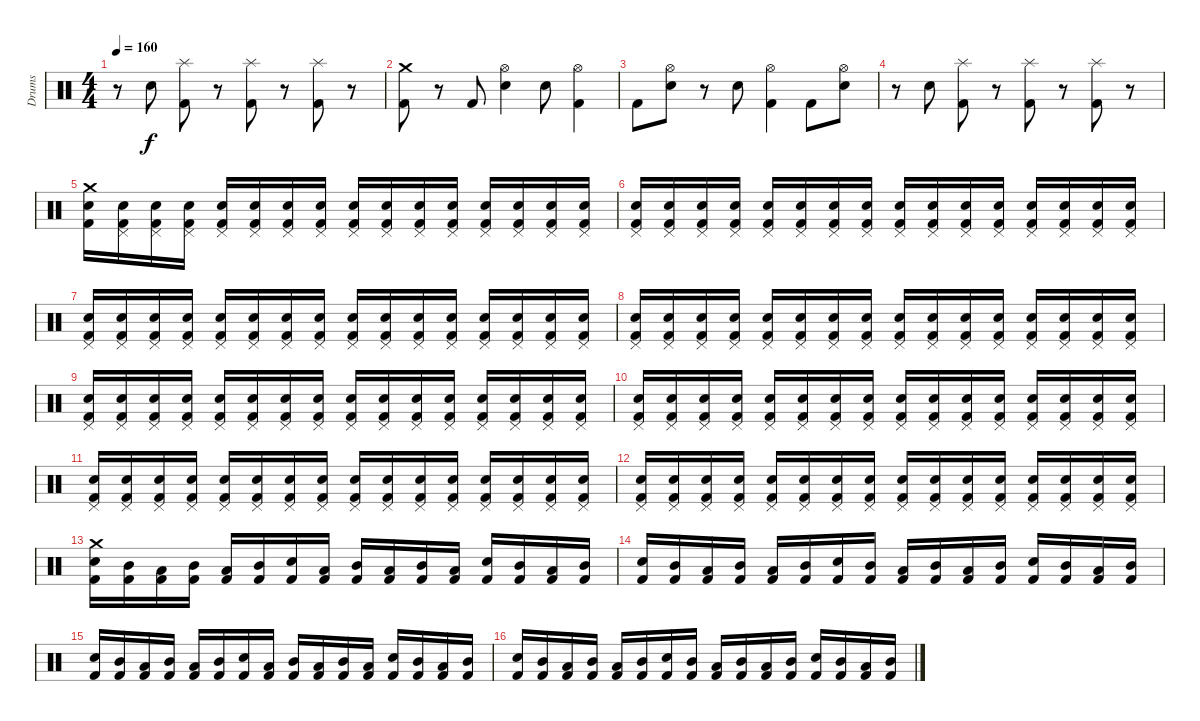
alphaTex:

\track ("Drums" "Drums") {instrument percussion}
\staff {score}
\articulation defaults
\ts (4 4)
\tempo 160
\clef neutral
\ks c
r.8{dy f} "Electric Snare (hit)".8 ("Splash (hit)" "Kick (hit) 2").8 r.8 ("Splash (hit)" "Kick (hit) 2").8 r.8 ("Splash (hit)" "Kick (hit) 2").8 r.8 |
("Crash medium (hit)" "Kick (hit) 2").8 r.8 "Kick (hit) 2".8 ("Hi-Hat (open)" "Electric Snare (hit)").4 "Electric Snare (hit)".8 ("Hi-Hat (open)" "Kick (hit) 2").4 |
"Kick (hit) 2".8 ("Hi-Hat (open)" "Electric Snare (hit)").8 r.8 "Electric Snare (hit)".8 ("Hi-Hat (open)" "Kick (hit) 2").4 "Kick (hit) 2".8 ("Hi-Hat (open)" "Electric Snare (hit)").8 |
r.8 "Electric Snare (hit)".8 ("Splash (hit)" "Kick (hit) 2").8 r.8 ("Splash (hit)" "Kick (hit) 2").8 r.8 ("Splash (hit)" "Kick (hit) 2").8 r.8 |
("Electric Snare (hit)" "Crash medium (hit)" "Kick (hit) 2").16 ("Pedal Hi-Hat (hit)" "Kick (hit) 2" "Electric Snare (hit)").16 ("Pedal Hi-Hat (hit)" "Kick (hit) 2" "Electric Snare (hit)").16 ("Pedal Hi-Hat (hit)" "Kick (hit) 2" "Electric Snare (hit)").16 ("Pedal Hi-Hat (hit)" "Kick (hit) 2" "Electric Snare (hit)").16 ("Pedal Hi-Hat (hit)" "Kick (hit) 2" "Electric Snare (hit)").16 ("Pedal Hi-Hat (hit)" "Kick (hit) 2" "Electric Snare (hit)").16 ("Pedal Hi-Hat (hit)" "Kick (hit) 2" "Electric Snare (hit)").16 ("Pedal Hi-Hat (hit)" "Kick (hit) 2" "Electric Snare (hit)").16 ("Pedal Hi-Hat (hit)" "Kick (hit) 2" "Electric Snare (hit)").16 ("Pedal Hi-Hat (hit)" "Kick (hit) 2" "Electric Snare (hit)").16 ("Pedal Hi-Hat (hit)" "Kick (hit) 2" "Electric Snare (hit)").16 ("Pedal Hi-Hat (hit)" "Kick (hit) 2" "Electric Snare (hit)").16 ("Pedal Hi-Hat (hit)" "Kick (hit) 2" "Electric Snare (hit)").16 ("Pedal Hi-Hat (hit)" "Kick (hit) 2" "Electric Snare (hit)").16 ("Pedal Hi-Hat (hit)" "Kick (hit) 2" "Electric Snare (hit)").16 |
("Electric Snare (hit)" "Kick (hit) 2" "Pedal Hi-Hat (hit)").16 ("Pedal Hi-Hat (hit)" "Kick (hit) 2" "Electric Snare (hit)").16 ("Pedal Hi-Hat (hit)" "Kick (hit) 2" "Electric Snare (hit)").16 ("Pedal Hi-Hat (hit)" "Kick (hit) 2" "Electric Snare (hit)").16 ("Pedal Hi-Hat (hit)" "Kick (hit) 2" "Electric Snare (hit)").16 ("Pedal Hi-Hat (hit)" "Kick (hit) 2" "Electric Snare (hit)").16 ("Pedal Hi-Hat (hit)" "Kick (hit) 2" "Electric Snare (hit)").16 ("Pedal Hi-Hat (hit)" "Kick (hit) 2" "Electric Snare (hit)").16 ("Pedal Hi-Hat (hit)" "Kick (hit) 2" "Electric Snare (hit)").16 ("Pedal Hi-Hat (hit)" "Kick (hit) 2" "Electric Snare (hit)").16 ("Pedal Hi-Hat (hit)" "Kick (hit) 2" "Electric Snare (hit)").16 ("Pedal Hi-Hat (hit)" "Kick (hit) 2" "Electric Snare (hit)").16 ("Pedal Hi-Hat (hit)" "Kick (hit) 2" "Electric Snare (hit)").16 ("Pedal Hi-Hat (hit)" "Kick (hit) 2" "Electric Snare (hit)").16 ("Pedal Hi-Hat (hit)" "Kick (hit) 2" "Electric Snare (hit)").16 ("Pedal Hi-Hat (hit)" "Kick (hit) 2" "Electric Snare (hit)").16 |
("Pedal Hi-Hat (hit)" "Electric Snare (hit)" "Kick (hit) 2").16 ("Pedal Hi-Hat (hit)" "Kick (hit) 2" "Electric Snare (hit)").16 ("Pedal Hi-Hat (hit)" "Kick (hit) 2" "Electric Snare (hit)").16 ("Pedal Hi-Hat (hit)" "Kick (hit) 2" "Electric Snare (hit)").16 ("Pedal Hi-Hat (hit)" "Kick (hit) 2" "Electric Snare (hit)").16 ("Pedal Hi-Hat (hit)" "Kick (hit) 2" "Electric Snare (hit)").16 ("Pedal Hi-Hat (hit)" "Kick (hit) 2" "Electric Snare (hit)").16 ("Pedal Hi-Hat (hit)" "Kick (hit) 2" "Electric Snare (hit)").16 ("Pedal Hi-Hat (hit)" "Kick (hit) 2" "Electric Snare (hit)").16 ("Pedal Hi-Hat (hit)" "Kick (hit) 2" "Electric Snare (hit)").16 ("Pedal Hi-Hat (hit)" "Kick (hit) 2" "Electric Snare (hit)").16 ("Pedal Hi-Hat (hit)" "Kick (hit) 2" "Electric Snare (hit)").16 ("Pedal Hi-Hat (hit)" "Kick (hit) 2" "Electric Snare (hit)").16 ("Pedal Hi-Hat (hit)" "Kick (hit) 2" "Electric Snare (hit)").16 ("Pedal Hi-Hat (hit)" "Kick (hit) 2" "Electric Snare (hit)").16 ("Pedal Hi-Hat (hit)" "Kick (hit) 2" "Electric Snare (hit)").16 |
("Electric Snare (hit)" "Kick (hit) 2" "Pedal Hi-Hat (hit)").16 ("Pedal Hi-Hat (hit)" "Kick (hit) 2" "Electric Snare (hit)").16 ("Pedal Hi-Hat (hit)" "Kick (hit) 2" "Electric Snare (hit)").16 ("Pedal Hi-Hat (hit)" "Kick (hit) 2" "Electric Snare (hit)").16 ("Pedal Hi-Hat (hit)" "Kick (hit) 2" "Electric Snare (hit)").16 ("Pedal Hi-Hat (hit)" "Kick (hit) 2" "Electric Snare (hit)").16 ("Pedal Hi-Hat (hit)" "Kick (hit) 2" "Electric Snare (hit)").16 ("Pedal Hi-Hat (hit)" "Kick (hit) 2" "Electric Snare (hit)").16 ("Pedal Hi-Hat (hit)" "Kick (hit) 2" "Electric Snare (hit)").16 ("Pedal Hi-Hat (hit)" "Kick (hit) 2" "Electric Snare (hit)").16 ("Pedal Hi-Hat (hit)" "Kick (hit) 2" "Electric Snare (hit)").16 ("Pedal Hi-Hat (hit)" "Kick (hit) 2" "Electric Snare (hit)").16 ("Pedal Hi-Hat (hit)" "Kick (hit) 2" "Electric Snare (hit)").16 ("Pedal Hi-Hat (hit)" "Kick (hit) 2" "Electric Snare (hit)").16 ("Pedal Hi-Hat (hit)" "Kick (hit) 2" "Electric Snare (hit)").16 ("Pedal Hi-Hat (hit)" "Kick (hit) 2" "Electric Snare (hit)").16 |
("Pedal Hi-Hat (hit)" "Electric Snare (hit)" "Kick (hit) 2").16 ("Pedal Hi-Hat (hit)" "Kick (hit) 2" "Electric Snare (hit)").16 ("Pedal Hi-Hat (hit)" "Kick (hit) 2" "Electric Snare (hit)").16 ("Pedal Hi-Hat (hit)" "Kick (hit) 2" "Electric Snare (hit)").16 ("Pedal Hi-Hat (hit)" "Kick (hit) 2" "Electric Snare (hit)").16 ("Pedal Hi-Hat (hit)" "Kick (hit) 2" "Electric Snare (hit)").16 ("Pedal Hi-Hat (hit)" "Kick (hit) 2" "Electric Snare (hit)").16 ("Pedal Hi-Hat (hit)" "Kick (hit) 2" "Electric Snare (hit)").16 ("Pedal Hi-Hat (hit)" "Kick (hit) 2" "Electric Snare (hit)").16 ("Pedal Hi-Hat (hit)" "Kick (hit) 2" "Electric Snare (hit)").16 ("Pedal Hi-Hat (hit)" "Kick (hit) 2" "Electric Snare (hit)").16 ("Pedal Hi-Hat (hit)" "Kick (hit) 2" "Electric Snare (hit)").16 ("Pedal Hi-Hat (hit)" "Kick (hit) 2" "Electric Snare (hit)").16 ("Pedal Hi-Hat (hit)" "Kick (hit) 2" "Electric Snare (hit)").16 ("Pedal Hi-Hat (hit)" "Kick (hit) 2" "Electric Snare (hit)").16 ("Pedal Hi-Hat (hit)" "Kick (hit) 2" "Electric Snare (hit)").16 |
("Electric Snare (hit)" "Kick (hit) 2" "Pedal Hi-Hat (hit)").16 ("Pedal Hi-Hat (hit)" "Kick (hit) 2" "Electric Snare (hit)").16 ("Pedal Hi-Hat (hit)" "Kick (hit) 2" "Electric Snare (hit)").16 ("Pedal Hi-Hat (hit)" "Kick (hit) 2" "Electric Snare (hit)").16 ("Pedal Hi-Hat (hit)" "Kick (hit) 2" "Electric Snare (hit)").16 ("Pedal Hi-Hat (hit)" "Kick (hit) 2" "Electric Snare (hit)").16 ("Pedal Hi-Hat (hit)" "Kick (hit) 2" "Electric Snare (hit)").16 ("Pedal Hi-Hat (hit)" "Kick (hit) 2" "Electric Snare (hit)").16 ("Pedal Hi-Hat (hit)" "Kick (hit) 2" "Electric Snare (hit)").16 ("Pedal Hi-Hat (hit)" "Kick (hit) 2" "Electric Snare (hit)").16 ("Pedal Hi-Hat (hit)" "Kick (hit) 2" "Electric Snare (hit)").16 ("Pedal Hi-Hat (hit)" "Kick (hit) 2" "Electric Snare (hit)").16 ("Pedal Hi-Hat (hit)" "Kick (hit) 2" "Electric Snare (hit)").16 ("Pedal Hi-Hat (hit)" "Kick (hit) 2" "Electric Snare (hit)").16 ("Pedal Hi-Hat (hit)" "Kick (hit) 2" "Electric Snare (hit)").16 ("Pedal Hi-Hat (hit)" "Kick (hit) 2" "Electric Snare (hit)").16 |
("Pedal Hi-Hat (hit)" "Electric Snare (hit)" "Kick (hit) 2").16 ("Pedal Hi-Hat (hit)" "Kick (hit) 2" "Electric Snare (hit)").16 ("Pedal Hi-Hat (hit)" "Kick (hit) 2" "Electric Snare (hit)").16 ("Pedal Hi-Hat (hit)" "Kick (hit) 2" "Electric Snare (hit)").16 ("Pedal Hi-Hat (hit)" "Kick (hit) 2" "Electric Snare (hit)").16 ("Pedal Hi-Hat (hit)" "Kick (hit) 2" "Electric Snare (hit)").16 ("Pedal Hi-Hat (hit)" "Kick (hit) 2" "Electric Snare (hit)").16 ("Pedal Hi-Hat (hit)" "Kick (hit) 2" "Electric Snare (hit)").16 ("Pedal Hi-Hat (hit)" "Kick (hit) 2" "Electric Snare (hit)").16 ("Pedal Hi-Hat (hit)" "Kick (hit) 2" "Electric Snare (hit)").16 ("Pedal Hi-Hat (hit)" "Kick (hit) 2" "Electric Snare (hit)").16 ("Pedal Hi-Hat (hit)" "Kick (hit) 2" "Electric Snare (hit)").16 ("Pedal Hi-Hat (hit)" "Kick (hit) 2" "Electric Snare (hit)").16 ("Pedal Hi-Hat (hit)" "Kick (hit) 2" "Electric Snare (hit)").16 ("Pedal Hi-Hat (hit)" "Kick (hit) 2" "Electric Snare (hit)").16 ("Pedal Hi-Hat (hit)" "Kick (hit) 2" "Electric Snare (hit)").16 |
("Electric Snare (hit)" "Kick (hit) 2" "Pedal Hi-Hat (hit)").16 ("Pedal Hi-Hat (hit)" "Kick (hit) 2" "Electric Snare (hit)").16 ("Pedal Hi-Hat (hit)" "Kick (hit) 2" "Electric Snare (hit)").16 ("Pedal Hi-Hat (hit)" "Kick (hit) 2" "Electric Snare (hit)").16 ("Pedal Hi-Hat (hit)" "Kick (hit) 2" "Electric Snare (hit)").16 ("Pedal Hi-Hat (hit)" "Kick (hit) 2" "Electric Snare (hit)").16 ("Pedal Hi-Hat (hit)" "Kick (hit) 2" "Electric Snare (hit)").16 ("Pedal Hi-Hat (hit)" "Kick (hit) 2" "Electric Snare (hit)").16 ("Pedal Hi-Hat (hit)" "Kick (hit) 2" "Electric Snare (hit)").16 ("Pedal Hi-Hat (hit)" "Kick (hit) 2" "Electric Snare (hit)").16 ("Pedal Hi-Hat (hit)" "Kick (hit) 2" "Electric Snare (hit)").16 ("Pedal Hi-Hat (hit)" "Kick (hit) 2" "Electric Snare (hit)").16 ("Pedal Hi-Hat (hit)" "Kick (hit) 2" "Electric Snare (hit)").16 ("Pedal Hi-Hat (hit)" "Kick (hit) 2" "Electric Snare (hit)").16 ("Pedal Hi-Hat (hit)" "Kick (hit) 2" "Electric Snare (hit)").16 ("Pedal Hi-Hat (hit)" "Kick (hit) 2" "Electric Snare (hit)").16 |
("Electric Snare (hit)" "Kick (hit) 2" "Crash medium (hit)").16 ("Mid Tom (hit)" "Kick (hit) 2").16 ("Low Tom (hit)" "Kick (hit) 2").16 ("Mid Tom (hit)" "Kick (hit) 2").16 ("Low Tom (hit)" "Kick (hit) 2").16 ("Mid Tom (hit)" "Kick (hit) 2").16 ("Electric Snare (hit)" "Kick (hit) 2").16 ("Low Tom (hit)" "Kick (hit) 2").16 ("Mid Tom (hit)" "Kick (hit) 2").16 ("Low Tom (hit)" "Kick (hit) 2").16 ("Mid Tom (hit)" "Kick (hit) 2").16 ("Low Tom (hit)" "Kick (hit) 2").16 ("Electric Snare (hit)" "Kick (hit) 2").16 ("Mid Tom (hit)" "Kick (hit) 2").16 ("Low Tom (hit)" "Kick (hit) 2").16 ("Mid Tom (hit)" "Kick (hit) 2").16 |
("Kick (hit) 2" "Electric Snare (hit)").16 ("Mid Tom (hit)" "Kick (hit) 2").16 ("Low Tom (hit)" "Kick (hit) 2").16 ("Mid Tom (hit)" "Kick (hit) 2").16 ("Low Tom (hit)" "Kick (hit) 2").16 ("Mid Tom (hit)" "Kick (hit) 2").16 ("Kick (hit) 2" "Electric Snare (hit)").16 ("Mid Tom (hit)" "Kick (hit) 2").16 ("Low Tom (hit)" "Kick (hit) 2").16 ("Mid Tom (hit)" "Kick (hit) 2").16 ("Low Tom (hit)" "Kick (hit) 2").16 ("Mid Tom (hit)" "Kick (hit) 2").16 ("Kick (hit) 2" "Electric Snare (hit)").16 ("Mid Tom (hit)" "Kick (hit) 2").16 ("Low Tom (hit)" "Kick (hit) 2").16 ("Mid Tom (hit)" "Kick (hit) 2").16 |
("Electric Snare (hit)" "Kick (hit) 2").16 ("Mid Tom (hit)" "Kick (hit) 2").16 ("Low Tom (hit)" "Kick (hit) 2").16 ("Mid Tom (hit)" "Kick (hit) 2").16 ("Low Tom (hit)" "Kick (hit) 2").16 ("Mid Tom (hit)" "Kick (hit) 2").16 ("Electric Snare (hit)" "Kick (hit) 2").16 ("Low Tom (hit)" "Kick (hit) 2").16 ("Mid Tom (hit)" "Kick (hit) 2").16 ("Low Tom (hit)" "Kick (hit) 2").16 ("Mid Tom (hit)" "Kick (hit) 2").16 ("Low Tom (hit)" "Kick (hit) 2").16 ("Electric Snare (hit)" "Kick (hit) 2").16 ("Mid Tom (hit)" "Kick (hit) 2").16 ("Low Tom (hit)" "Kick (hit) 2").16 ("Mid Tom (hit)" "Kick (hit) 2").16 |
("Kick (hit) 2" "Electric Snare (hit)").16 ("Mid Tom (hit)" "Kick (hit) 2").16 ("Low Tom (hit)" "Kick (hit) 2").16 ("Mid Tom (hit)" "Kick (hit) 2").16 ("Low Tom (hit)" "Kick (hit) 2").16 ("Mid Tom (hit)" "Kick (hit) 2").16 ("Kick (hit) 2" "Electric Snare (hit)").16 ("Mid Tom (hit)" "Kick (hit) 2").16 ("Low Tom (hit)" "Kick (hit) 2").16 ("Mid Tom (hit)" "Kick (hit) 2").16 ("Low Tom (hit)" "Kick (hit) 2").16 ("Mid Tom (hit)" "Kick (hit) 2").16 ("Kick (hit) 2" "Electric Snare (hit)").16 ("Mid Tom (hit)" "Kick (hit) 2").16 ("Low Tom (hit)" "Kick (hit) 2").16 ("Mid Tom (hit)" "Kick (hit) 2").16
